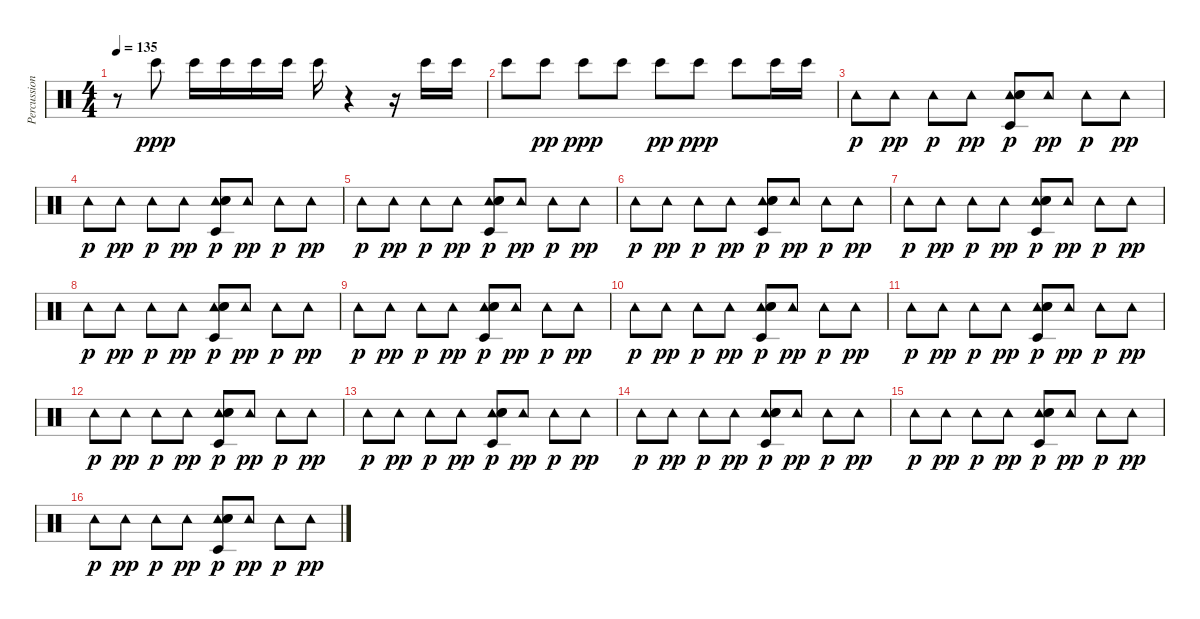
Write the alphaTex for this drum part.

\track ("Percussion" "Percussion") {instrument percussion}
\staff {score}
\articulation defaults
\ts (4 4)
\tempo 135
\clef neutral
\ks c
r.8{dy ppp} "Bongo High (hit)".8 "Bongo High (hit)".16 "Bongo High (hit)".16 "Bongo High (hit)".16 "Bongo High (hit)".16 "Bongo High (hit)".16 r.4 r.16 "Bongo High (hit)".16 "Bongo High (hit)".16 |
"Bongo High (hit)".8 "Bongo High (hit)".8{dy pp} "Bongo High (hit)".8{dy ppp} "Bongo High (hit)".8 "Bongo High (hit)".8{dy pp} "Bongo High (hit)".8{dy ppp} "Bongo High (hit)".8 "Bongo High (hit)".16 "Bongo High (hit)".16 |
"Tambourine (hit)".8{dy p} "Tambourine (hit)".8{dy pp} "Tambourine (hit)".8{dy p} "Tambourine (hit)".8{dy pp} ("Tambourine (hit)" "Hand Clap (hit)" "Snare (hit) 2" "Timbale low (hit)").8{dy p} "Tambourine (hit)".8{dy pp} "Tambourine (hit)".8{dy p} "Tambourine (hit)".8{dy pp} |
"Tambourine (hit)".8{dy p} "Tambourine (hit)".8{dy pp} "Tambourine (hit)".8{dy p} "Tambourine (hit)".8{dy pp} ("Tambourine (hit)" "Hand Clap (hit)" "Snare (hit) 2" "Timbale low (hit)").8{dy p} "Tambourine (hit)".8{dy pp} "Tambourine (hit)".8{dy p} "Tambourine (hit)".8{dy pp} |
"Tambourine (hit)".8{dy p} "Tambourine (hit)".8{dy pp} "Tambourine (hit)".8{dy p} "Tambourine (hit)".8{dy pp} ("Tambourine (hit)" "Hand Clap (hit)" "Snare (hit) 2" "Timbale low (hit)").8{dy p} "Tambourine (hit)".8{dy pp} "Tambourine (hit)".8{dy p} "Tambourine (hit)".8{dy pp} |
"Tambourine (hit)".8{dy p} "Tambourine (hit)".8{dy pp} "Tambourine (hit)".8{dy p} "Tambourine (hit)".8{dy pp} ("Tambourine (hit)" "Hand Clap (hit)" "Snare (hit) 2" "Timbale low (hit)").8{dy p} "Tambourine (hit)".8{dy pp} "Tambourine (hit)".8{dy p} "Tambourine (hit)".8{dy pp} |
"Tambourine (hit)".8{dy p} "Tambourine (hit)".8{dy pp} "Tambourine (hit)".8{dy p} "Tambourine (hit)".8{dy pp} ("Tambourine (hit)" "Hand Clap (hit)" "Snare (hit) 2" "Timbale low (hit)").8{dy p} "Tambourine (hit)".8{dy pp} "Tambourine (hit)".8{dy p} "Tambourine (hit)".8{dy pp} |
"Tambourine (hit)".8{dy p} "Tambourine (hit)".8{dy pp} "Tambourine (hit)".8{dy p} "Tambourine (hit)".8{dy pp} ("Tambourine (hit)" "Hand Clap (hit)" "Snare (hit) 2" "Timbale low (hit)").8{dy p} "Tambourine (hit)".8{dy pp} "Tambourine (hit)".8{dy p} "Tambourine (hit)".8{dy pp} |
"Tambourine (hit)".8{dy p} "Tambourine (hit)".8{dy pp} "Tambourine (hit)".8{dy p} "Tambourine (hit)".8{dy pp} ("Tambourine (hit)" "Hand Clap (hit)" "Snare (hit) 2" "Timbale low (hit)").8{dy p} "Tambourine (hit)".8{dy pp} "Tambourine (hit)".8{dy p} "Tambourine (hit)".8{dy pp} |
"Tambourine (hit)".8{dy p} "Tambourine (hit)".8{dy pp} "Tambourine (hit)".8{dy p} "Tambourine (hit)".8{dy pp} ("Tambourine (hit)" "Hand Clap (hit)" "Snare (hit) 2" "Timbale low (hit)").8{dy p} "Tambourine (hit)".8{dy pp} "Tambourine (hit)".8{dy p} "Tambourine (hit)".8{dy pp} |
"Tambourine (hit)".8{dy p} "Tambourine (hit)".8{dy pp} "Tambourine (hit)".8{dy p} "Tambourine (hit)".8{dy pp} ("Tambourine (hit)" "Hand Clap (hit)" "Snare (hit) 2" "Timbale low (hit)").8{dy p} "Tambourine (hit)".8{dy pp} "Tambourine (hit)".8{dy p} "Tambourine (hit)".8{dy pp} |
"Tambourine (hit)".8{dy p} "Tambourine (hit)".8{dy pp} "Tambourine (hit)".8{dy p} "Tambourine (hit)".8{dy pp} ("Tambourine (hit)" "Hand Clap (hit)" "Snare (hit) 2" "Timbale low (hit)").8{dy p} "Tambourine (hit)".8{dy pp} "Tambourine (hit)".8{dy p} "Tambourine (hit)".8{dy pp} |
"Tambourine (hit)".8{dy p} "Tambourine (hit)".8{dy pp} "Tambourine (hit)".8{dy p} "Tambourine (hit)".8{dy pp} ("Tambourine (hit)" "Hand Clap (hit)" "Snare (hit) 2" "Timbale low (hit)").8{dy p} "Tambourine (hit)".8{dy pp} "Tambourine (hit)".8{dy p} "Tambourine (hit)".8{dy pp} |
"Tambourine (hit)".8{dy p} "Tambourine (hit)".8{dy pp} "Tambourine (hit)".8{dy p} "Tambourine (hit)".8{dy pp} ("Tambourine (hit)" "Hand Clap (hit)" "Snare (hit) 2" "Timbale low (hit)").8{dy p} "Tambourine (hit)".8{dy pp} "Tambourine (hit)".8{dy p} "Tambourine (hit)".8{dy pp} |
"Tambourine (hit)".8{dy p} "Tambourine (hit)".8{dy pp} "Tambourine (hit)".8{dy p} "Tambourine (hit)".8{dy pp} ("Tambourine (hit)" "Hand Clap (hit)" "Snare (hit) 2" "Timbale low (hit)").8{dy p} "Tambourine (hit)".8{dy pp} "Tambourine (hit)".8{dy p} "Tambourine (hit)".8{dy pp} |
"Tambourine (hit)".8{dy p} "Tambourine (hit)".8{dy pp} "Tambourine (hit)".8{dy p} "Tambourine (hit)".8{dy pp} ("Tambourine (hit)" "Hand Clap (hit)" "Snare (hit) 2" "Timbale low (hit)").8{dy p} "Tambourine (hit)".8{dy pp} "Tambourine (hit)".8{dy p} "Tambourine (hit)".8{dy pp}
